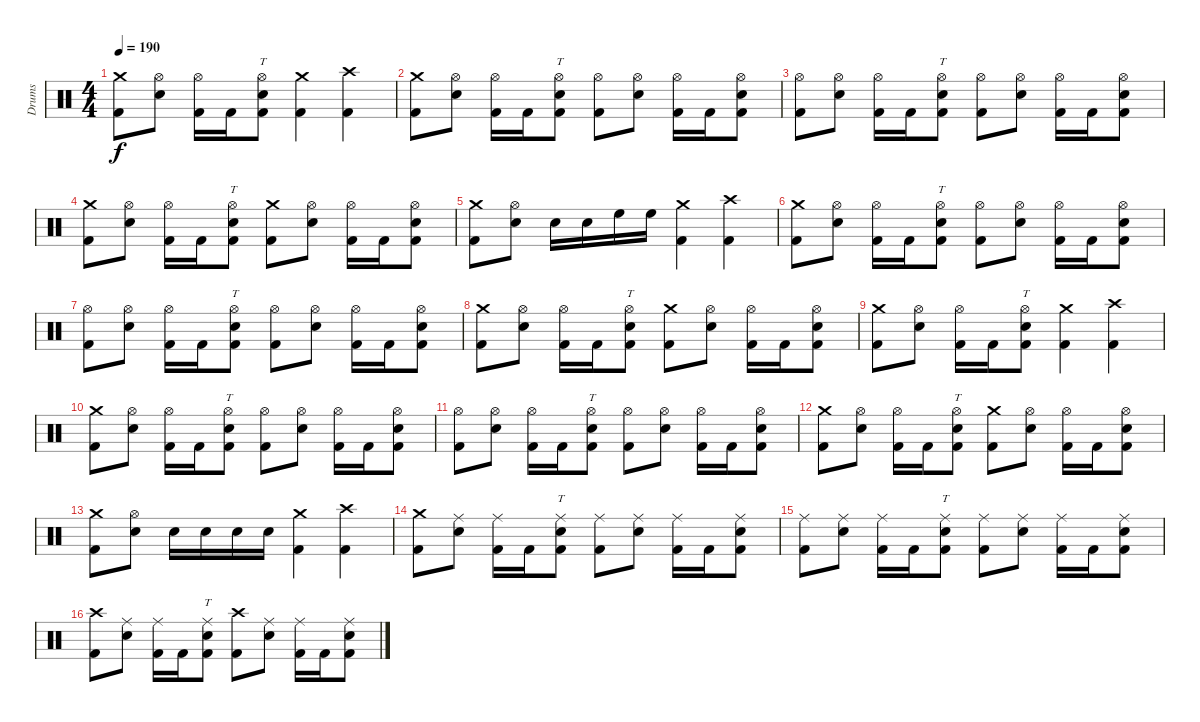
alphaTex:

\track ("Drums" "Drums") {instrument percussion}
\staff {score}
\articulation defaults
\ts (4 4)
\tempo 190
\clef neutral
\ks c
("Crash medium (hit)" "Kick (hit) 2").8{dy f} ("Hi-Hat (open)" "Electric Snare (hit)").8 ("Hi-Hat (open)" "Kick (hit) 2").16 "Kick (hit) 2".16 ("Hi-Hat (open)" "Electric Snare (hit)" "Kick (hit) 2").8{tt} ("Crash medium (hit)" "Kick (hit) 2").4 ("Crash high (hit)" "Kick (hit) 2").4 |
("Crash medium (hit)" "Kick (hit) 2").8 ("Hi-Hat (open)" "Electric Snare (hit)").8 ("Hi-Hat (open)" "Kick (hit) 2").16 "Kick (hit) 2".16 ("Hi-Hat (open)" "Electric Snare (hit)" "Kick (hit) 2").8{tt} ("Hi-Hat (open)" "Kick (hit) 2").8 ("Hi-Hat (open)" "Electric Snare (hit)").8 ("Hi-Hat (open)" "Kick (hit) 2").16 "Kick (hit) 2".16 ("Hi-Hat (open)" "Electric Snare (hit)" "Kick (hit) 2").8 |
("Hi-Hat (open)" "Kick (hit) 2").8 ("Hi-Hat (open)" "Electric Snare (hit)").8 ("Hi-Hat (open)" "Kick (hit) 2").16 "Kick (hit) 2".16 ("Hi-Hat (open)" "Electric Snare (hit)" "Kick (hit) 2").8{tt} ("Hi-Hat (open)" "Kick (hit) 2").8 ("Hi-Hat (open)" "Electric Snare (hit)").8 ("Hi-Hat (open)" "Kick (hit) 2").16 "Kick (hit) 2".16 ("Hi-Hat (open)" "Electric Snare (hit)" "Kick (hit) 2").8 |
("Crash medium (hit)" "Kick (hit) 2").8 ("Hi-Hat (open)" "Electric Snare (hit)").8 ("Hi-Hat (open)" "Kick (hit) 2").16 "Kick (hit) 2".16 ("Hi-Hat (open)" "Electric Snare (hit)" "Kick (hit) 2").8{tt} ("Crash medium (hit)" "Kick (hit) 2").8 ("Hi-Hat (open)" "Electric Snare (hit)").8 ("Hi-Hat (open)" "Kick (hit) 2").16 "Kick (hit) 2".16 ("Hi-Hat (open)" "Electric Snare (hit)" "Kick (hit) 2").8 |
("Crash medium (hit)" "Kick (hit) 2").8 ("Hi-Hat (open)" "Electric Snare (hit)").8 "Electric Snare (hit)".16 "Electric Snare (hit)".16 "High Floor Tom (hit)".16 "High Floor Tom (hit)".16 ("Crash medium (hit)" "Kick (hit) 2").4 ("Crash high (hit)" "Kick (hit) 2").4 |
("Crash medium (hit)" "Kick (hit) 2").8 ("Hi-Hat (open)" "Electric Snare (hit)").8 ("Hi-Hat (open)" "Kick (hit) 2").16 "Kick (hit) 2".16 ("Hi-Hat (open)" "Electric Snare (hit)" "Kick (hit) 2").8{tt} ("Hi-Hat (open)" "Kick (hit) 2").8 ("Hi-Hat (open)" "Electric Snare (hit)").8 ("Hi-Hat (open)" "Kick (hit) 2").16 "Kick (hit) 2".16 ("Hi-Hat (open)" "Electric Snare (hit)" "Kick (hit) 2").8 |
("Hi-Hat (open)" "Kick (hit) 2").8 ("Hi-Hat (open)" "Electric Snare (hit)").8 ("Hi-Hat (open)" "Kick (hit) 2").16 "Kick (hit) 2".16 ("Hi-Hat (open)" "Electric Snare (hit)" "Kick (hit) 2").8{tt} ("Hi-Hat (open)" "Kick (hit) 2").8 ("Hi-Hat (open)" "Electric Snare (hit)").8 ("Hi-Hat (open)" "Kick (hit) 2").16 "Kick (hit) 2".16 ("Hi-Hat (open)" "Electric Snare (hit)" "Kick (hit) 2").8 |
("Crash medium (hit)" "Kick (hit) 2").8 ("Hi-Hat (open)" "Electric Snare (hit)").8 ("Hi-Hat (open)" "Kick (hit) 2").16 "Kick (hit) 2".16 ("Hi-Hat (open)" "Electric Snare (hit)" "Kick (hit) 2").8{tt} ("Crash medium (hit)" "Kick (hit) 2").8 ("Hi-Hat (open)" "Electric Snare (hit)").8 ("Hi-Hat (open)" "Kick (hit) 2").16 "Kick (hit) 2".16 ("Hi-Hat (open)" "Electric Snare (hit)" "Kick (hit) 2").8 |
("Crash medium (hit)" "Kick (hit) 2").8 ("Hi-Hat (open)" "Electric Snare (hit)").8 ("Hi-Hat (open)" "Kick (hit) 2").16 "Kick (hit) 2".16 ("Hi-Hat (open)" "Electric Snare (hit)" "Kick (hit) 2").8{tt} ("Crash medium (hit)" "Kick (hit) 2").4 ("Crash high (hit)" "Kick (hit) 2").4 |
("Crash medium (hit)" "Kick (hit) 2").8 ("Hi-Hat (open)" "Electric Snare (hit)").8 ("Hi-Hat (open)" "Kick (hit) 2").16 "Kick (hit) 2".16 ("Hi-Hat (open)" "Electric Snare (hit)" "Kick (hit) 2").8{tt} ("Hi-Hat (open)" "Kick (hit) 2").8 ("Hi-Hat (open)" "Electric Snare (hit)").8 ("Hi-Hat (open)" "Kick (hit) 2").16 "Kick (hit) 2".16 ("Hi-Hat (open)" "Electric Snare (hit)" "Kick (hit) 2").8 |
("Hi-Hat (open)" "Kick (hit) 2").8 ("Hi-Hat (open)" "Electric Snare (hit)").8 ("Hi-Hat (open)" "Kick (hit) 2").16 "Kick (hit) 2".16 ("Hi-Hat (open)" "Electric Snare (hit)" "Kick (hit) 2").8{tt} ("Hi-Hat (open)" "Kick (hit) 2").8 ("Hi-Hat (open)" "Electric Snare (hit)").8 ("Hi-Hat (open)" "Kick (hit) 2").16 "Kick (hit) 2".16 ("Hi-Hat (open)" "Electric Snare (hit)" "Kick (hit) 2").8 |
("Crash medium (hit)" "Kick (hit) 2").8 ("Hi-Hat (open)" "Electric Snare (hit)").8 ("Hi-Hat (open)" "Kick (hit) 2").16 "Kick (hit) 2".16 ("Hi-Hat (open)" "Electric Snare (hit)" "Kick (hit) 2").8{tt} ("Crash medium (hit)" "Kick (hit) 2").8 ("Hi-Hat (open)" "Electric Snare (hit)").8 ("Hi-Hat (open)" "Kick (hit) 2").16 "Kick (hit) 2".16 ("Hi-Hat (open)" "Electric Snare (hit)" "Kick (hit) 2").8 |
("Crash medium (hit)" "Kick (hit) 2").8 ("Hi-Hat (open)" "Electric Snare (hit)").8 "Electric Snare (hit)".16 "Electric Snare (hit)".16 "Electric Snare (hit)".16 "Electric Snare (hit)".16 ("Crash medium (hit)" "Kick (hit) 2").4 ("Crash high (hit)" "Kick (hit) 2").4 |
("Crash medium (hit)" "Kick (hit) 2").8 ("Ride (middle)" "Electric Snare (hit)").8 ("Ride (middle)" "Kick (hit) 2").16 "Kick (hit) 2".16 ("Ride (middle)" "Electric Snare (hit)" "Kick (hit) 2").8{tt} ("Ride (middle)" "Kick (hit) 2").8 ("Ride (middle)" "Electric Snare (hit)").8 ("Ride (middle)" "Kick (hit) 2").16 "Kick (hit) 2".16 ("Ride (middle)" "Electric Snare (hit)" "Kick (hit) 2").8 |
("Ride (middle)" "Kick (hit) 2").8 ("Ride (middle)" "Electric Snare (hit)").8 ("Ride (middle)" "Kick (hit) 2").16 "Kick (hit) 2".16 ("Ride (middle)" "Electric Snare (hit)" "Kick (hit) 2").8{tt} ("Ride (middle)" "Kick (hit) 2").8 ("Ride (middle)" "Electric Snare (hit)").8 ("Ride (middle)" "Kick (hit) 2").16 "Kick (hit) 2".16 ("Ride (middle)" "Electric Snare (hit)" "Kick (hit) 2").8 |
("Crash high (hit)" "Kick (hit) 2").8 ("Ride (middle)" "Electric Snare (hit)").8 ("Ride (middle)" "Kick (hit) 2").16 "Kick (hit) 2".16 ("Ride (middle)" "Electric Snare (hit)" "Kick (hit) 2").8{tt} ("Crash high (hit)" "Kick (hit) 2").8 ("Ride (middle)" "Electric Snare (hit)").8 ("Ride (middle)" "Kick (hit) 2").16 "Kick (hit) 2".16 ("Ride (middle)" "Electric Snare (hit)" "Kick (hit) 2").8
